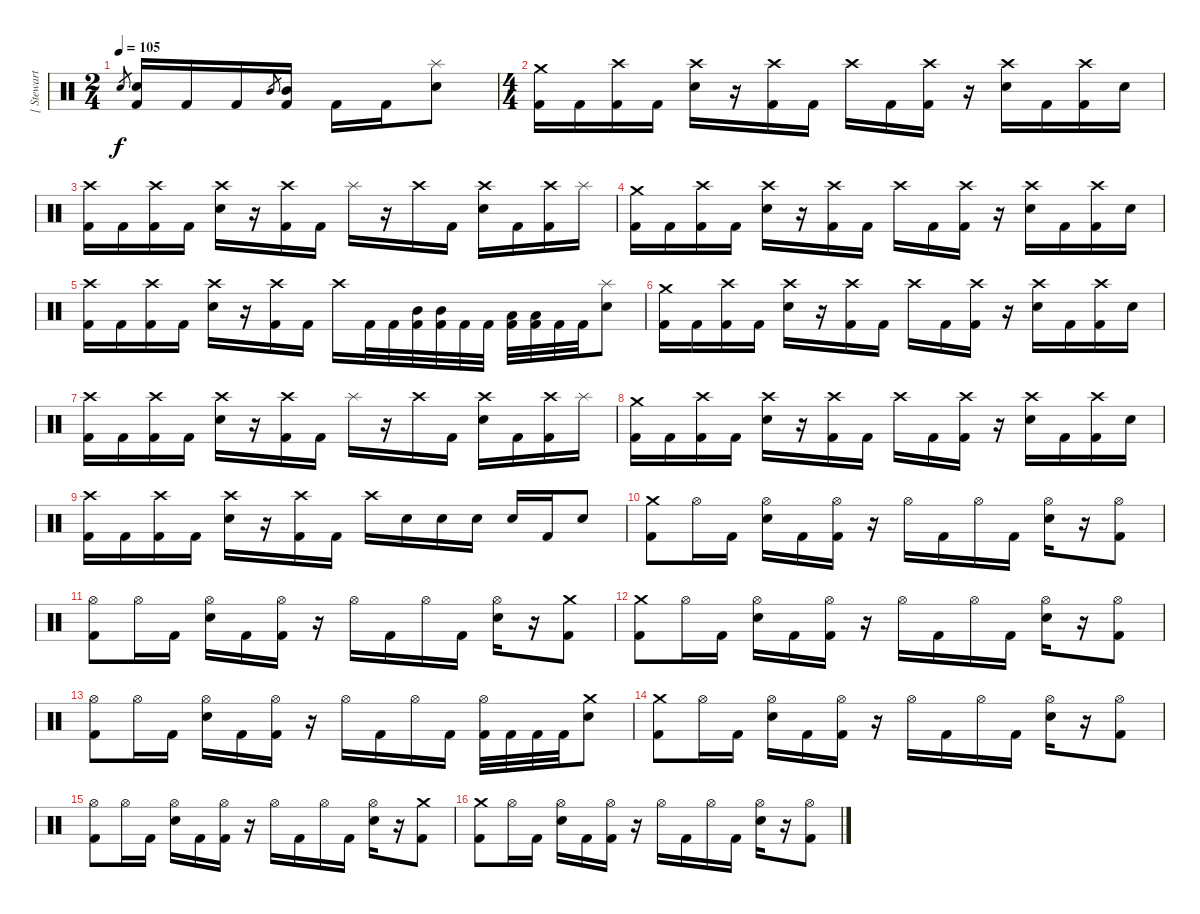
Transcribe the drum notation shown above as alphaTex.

\track ("[ Stewart ]" "[ Stewart ") {instrument percussion}
\staff {score}
\articulation defaults
\ts (2 4)
\tempo 105
\clef neutral
\ks c "Electric Snare (hit)".8{gr dy f}
("Electric Snare (hit)" "Kick (hit) 2").16 "Kick (hit) 2".16 "Kick (hit) 2".16 "Mid Tom (hit)".8{gr} ("Mid Tom (hit)" "Kick (hit) 2").16 "Kick (hit) 2".16 "Kick (hit) 2".16 ("Electric Snare (hit)" "Splash (hit)").8 |
\ts (4 4)
("Kick (hit) 2" "Crash medium (hit)").16 "Kick (hit) 2".16 ("Kick (hit) 2" "Crash high (hit)").16 "Kick (hit) 2".16 ("Electric Snare (hit)" "Crash high (hit)").16 r.16 ("Kick (hit) 2" "Crash high (hit)").16 "Kick (hit) 2".16 "Crash high (hit)".16 "Kick (hit) 2".16 ("Kick (hit) 2" "Crash high (hit)").16 r.16 ("Electric Snare (hit)" "Crash high (hit)").16 "Kick (hit) 2".16 ("Kick (hit) 2" "Crash high (hit)").16 "Electric Snare (hit)".16 |
("Kick (hit) 2" "Crash high (hit)").16 "Kick (hit) 2".16 ("Kick (hit) 2" "Crash high (hit)").16 "Kick (hit) 2".16 ("Electric Snare (hit)" "Crash high (hit)").16 r.16 ("Kick (hit) 2" "Crash high (hit)").16 "Kick (hit) 2".16 "Splash (hit)".16 r.16 "Crash high (hit)".16 "Kick (hit) 2".16 ("Electric Snare (hit)" "Crash high (hit)").16 "Kick (hit) 2".16 ("Kick (hit) 2" "Crash high (hit)").16 "Splash (hit)".16 |
("Kick (hit) 2" "Crash medium (hit)").16 "Kick (hit) 2".16 ("Kick (hit) 2" "Crash high (hit)").16 "Kick (hit) 2".16 ("Electric Snare (hit)" "Crash high (hit)").16 r.16 ("Kick (hit) 2" "Crash high (hit)").16 "Kick (hit) 2".16 "Crash high (hit)".16 "Kick (hit) 2".16 ("Kick (hit) 2" "Crash high (hit)").16 r.16 ("Electric Snare (hit)" "Crash high (hit)").16 "Kick (hit) 2".16 ("Kick (hit) 2" "Crash high (hit)").16 "Electric Snare (hit)".16 |
("Kick (hit) 2" "Crash high (hit)").16 "Kick (hit) 2".16 ("Kick (hit) 2" "Crash high (hit)").16 "Kick (hit) 2".16 ("Electric Snare (hit)" "Crash high (hit)").16 r.16 ("Kick (hit) 2" "Crash high (hit)").16 "Kick (hit) 2".16 "Crash high (hit)".16 "Kick (hit) 2".32 "Kick (hit) 2".32 ("Mid Tom (hit)" "Kick (hit) 2").32 ("Mid Tom (hit)" "Kick (hit) 2").32 "Kick (hit) 2".32 "Kick (hit) 2".32 ("Low Tom (hit)" "Kick (hit) 2").32 ("Low Tom (hit)" "Kick (hit) 2").32 "Kick (hit) 2".32 "Kick (hit) 2".32 ("Electric Snare (hit)" "Splash (hit)").8 |
("Kick (hit) 2" "Crash medium (hit)").16 "Kick (hit) 2".16 ("Kick (hit) 2" "Crash high (hit)").16 "Kick (hit) 2".16 ("Electric Snare (hit)" "Crash high (hit)").16 r.16 ("Kick (hit) 2" "Crash high (hit)").16 "Kick (hit) 2".16 "Crash high (hit)".16 "Kick (hit) 2".16 ("Kick (hit) 2" "Crash high (hit)").16 r.16 ("Electric Snare (hit)" "Crash high (hit)").16 "Kick (hit) 2".16 ("Kick (hit) 2" "Crash high (hit)").16 "Electric Snare (hit)".16 |
("Kick (hit) 2" "Crash high (hit)").16 "Kick (hit) 2".16 ("Kick (hit) 2" "Crash high (hit)").16 "Kick (hit) 2".16 ("Electric Snare (hit)" "Crash high (hit)").16 r.16 ("Kick (hit) 2" "Crash high (hit)").16 "Kick (hit) 2".16 "Splash (hit)".16 r.16 "Crash high (hit)".16 "Kick (hit) 2".16 ("Electric Snare (hit)" "Crash high (hit)").16 "Kick (hit) 2".16 ("Kick (hit) 2" "Crash high (hit)").16 "Splash (hit)".16 |
("Kick (hit) 2" "Crash medium (hit)").16 "Kick (hit) 2".16 ("Kick (hit) 2" "Crash high (hit)").16 "Kick (hit) 2".16 ("Electric Snare (hit)" "Crash high (hit)").16 r.16 ("Kick (hit) 2" "Crash high (hit)").16 "Kick (hit) 2".16 "Crash high (hit)".16 "Kick (hit) 2".16 ("Kick (hit) 2" "Crash high (hit)").16 r.16 ("Electric Snare (hit)" "Crash high (hit)").16 "Kick (hit) 2".16 ("Kick (hit) 2" "Crash high (hit)").16 "Electric Snare (hit)".16 |
("Kick (hit) 2" "Crash high (hit)").16 "Kick (hit) 2".16 ("Kick (hit) 2" "Crash high (hit)").16 "Kick (hit) 2".16 ("Electric Snare (hit)" "Crash high (hit)").16 r.16 ("Kick (hit) 2" "Crash high (hit)").16 "Kick (hit) 2".16 "Crash high (hit)".16 "Electric Snare (hit)".16 "Electric Snare (hit)".16 "Electric Snare (hit)".16 "Electric Snare (hit)".16 "Kick (hit) 2".16 "Electric Snare (hit)".8 |
("Kick (hit) 2" "Crash medium (hit)").8 "Hi-Hat (open)".16 "Kick (hit) 2".16 ("Electric Snare (hit)" "Hi-Hat (open)").16 "Kick (hit) 2".16 ("Kick (hit) 2" "Hi-Hat (open)").16 r.16 "Hi-Hat (open)".16 "Kick (hit) 2".16 "Hi-Hat (open)".16 "Kick (hit) 2".16 ("Electric Snare (hit)" "Hi-Hat (open)").16 r.16 ("Kick (hit) 2" "Hi-Hat (open)").8 |
("Kick (hit) 2" "Hi-Hat (open)").8 "Hi-Hat (open)".16 "Kick (hit) 2".16 ("Electric Snare (hit)" "Hi-Hat (open)").16 "Kick (hit) 2".16 ("Kick (hit) 2" "Hi-Hat (open)").16 r.16 "Hi-Hat (open)".16 "Kick (hit) 2".16 "Hi-Hat (open)".16 "Kick (hit) 2".16 ("Electric Snare (hit)" "Hi-Hat (open)").16 r.16 ("Kick (hit) 2" "Crash medium (hit)").8 |
("Kick (hit) 2" "Crash medium (hit)").8 "Hi-Hat (open)".16 "Kick (hit) 2".16 ("Electric Snare (hit)" "Hi-Hat (open)").16 "Kick (hit) 2".16 ("Kick (hit) 2" "Hi-Hat (open)").16 r.16 "Hi-Hat (open)".16 "Kick (hit) 2".16 "Hi-Hat (open)".16 "Kick (hit) 2".16 ("Electric Snare (hit)" "Hi-Hat (open)").16 r.16 ("Kick (hit) 2" "Hi-Hat (open)").8 |
("Kick (hit) 2" "Hi-Hat (open)").8 "Hi-Hat (open)".16 "Kick (hit) 2".16 ("Electric Snare (hit)" "Hi-Hat (open)").16 "Kick (hit) 2".16 ("Kick (hit) 2" "Hi-Hat (open)").16 r.16 "Hi-Hat (open)".16 "Kick (hit) 2".16 "Hi-Hat (open)".16 "Kick (hit) 2".16 ("Kick (hit) 2" "Hi-Hat (open)").32 "Kick (hit) 2".32 "Kick (hit) 2".32 "Kick (hit) 2".32 ("Electric Snare (hit)" "Crash medium (hit)").8 |
("Kick (hit) 2" "Crash medium (hit)").8 "Hi-Hat (open)".16 "Kick (hit) 2".16 ("Electric Snare (hit)" "Hi-Hat (open)").16 "Kick (hit) 2".16 ("Kick (hit) 2" "Hi-Hat (open)").16 r.16 "Hi-Hat (open)".16 "Kick (hit) 2".16 "Hi-Hat (open)".16 "Kick (hit) 2".16 ("Electric Snare (hit)" "Hi-Hat (open)").16 r.16 ("Kick (hit) 2" "Hi-Hat (open)").8 |
("Kick (hit) 2" "Hi-Hat (open)").8 "Hi-Hat (open)".16 "Kick (hit) 2".16 ("Electric Snare (hit)" "Hi-Hat (open)").16 "Kick (hit) 2".16 ("Kick (hit) 2" "Hi-Hat (open)").16 r.16 "Hi-Hat (open)".16 "Kick (hit) 2".16 "Hi-Hat (open)".16 "Kick (hit) 2".16 ("Electric Snare (hit)" "Hi-Hat (open)").16 r.16 ("Kick (hit) 2" "Crash medium (hit)").8 |
("Kick (hit) 2" "Crash medium (hit)").8 "Hi-Hat (open)".16 "Kick (hit) 2".16 ("Electric Snare (hit)" "Hi-Hat (open)").16 "Kick (hit) 2".16 ("Kick (hit) 2" "Hi-Hat (open)").16 r.16 "Hi-Hat (open)".16 "Kick (hit) 2".16 "Hi-Hat (open)".16 "Kick (hit) 2".16 ("Electric Snare (hit)" "Hi-Hat (open)").16 r.16 ("Kick (hit) 2" "Hi-Hat (open)").8
